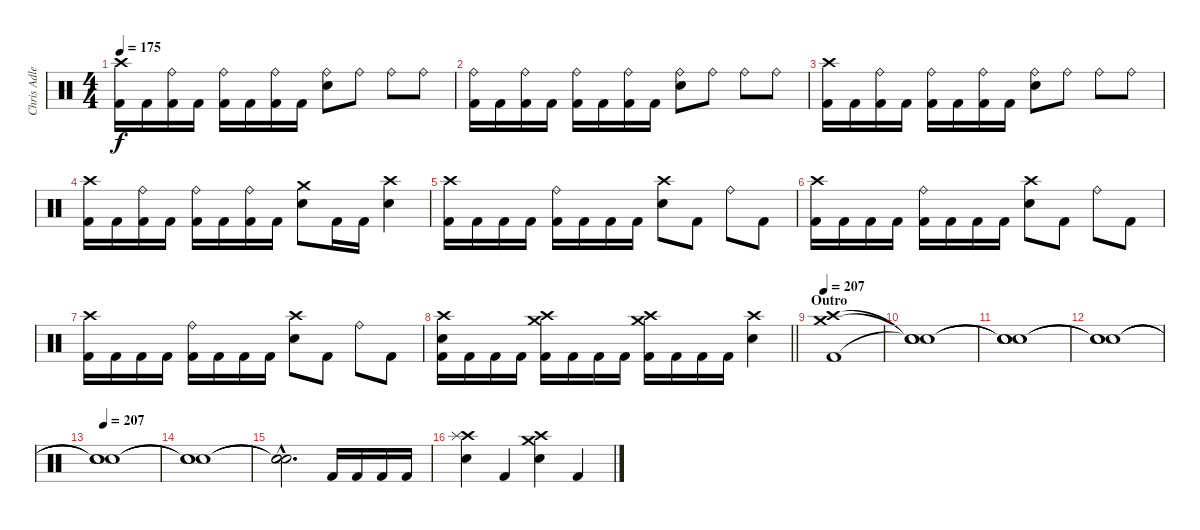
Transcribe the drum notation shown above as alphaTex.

\track ("Chris Adler" "Chris Adle") {instrument percussion}
\staff {score}
\articulation defaults
\ts (4 4)
\tempo 175
\clef neutral
\ks c
("Crash high (hit)" "Kick (hit) 2").16{dy f} "Kick (hit) 2".16 ("Ride (bell)" "Kick (hit) 2").16 "Kick (hit) 2".16 ("Ride (bell)" "Kick (hit) 2").16 "Kick (hit) 2".16 ("Ride (bell)" "Kick (hit) 2").16 "Kick (hit) 2".16 ("Ride (bell)" "Electric Snare (hit)").8 "Ride (bell)".8 "Ride (bell)".8 "Ride (bell)".8 |
("Ride (bell)" "Kick (hit) 2").16 "Kick (hit) 2".16 ("Ride (bell)" "Kick (hit) 2").16 "Kick (hit) 2".16 ("Ride (bell)" "Kick (hit) 2").16 "Kick (hit) 2".16 ("Ride (bell)" "Kick (hit) 2").16 "Kick (hit) 2".16 ("Ride (bell)" "Electric Snare (hit)").8 "Ride (bell)".8 "Ride (bell)".8 "Ride (bell)".8 |
("Crash high (hit)" "Kick (hit) 2").16 "Kick (hit) 2".16 ("Ride (bell)" "Kick (hit) 2").16 "Kick (hit) 2".16 ("Ride (bell)" "Kick (hit) 2").16 "Kick (hit) 2".16 ("Ride (bell)" "Kick (hit) 2").16 "Kick (hit) 2".16 ("Ride (bell)" "Electric Snare (hit)").8 "Ride (bell)".8 "Ride (bell)".8 "Ride (bell)".8 |
("Crash high (hit)" "Kick (hit) 2").16 "Kick (hit) 2".16 ("Ride (bell)" "Kick (hit) 2").16 "Kick (hit) 2".16 ("Ride (bell)" "Kick (hit) 2").16 "Kick (hit) 2".16 ("Ride (bell)" "Kick (hit) 2").16 "Kick (hit) 2".16 ("Crash medium (hit)" "Electric Snare (hit)").8 "Kick (hit) 2".16 "Kick (hit) 2".16 ("Crash high (hit)" "Electric Snare (hit)").4 |
("Crash high (hit)" "Kick (hit) 2").16 "Kick (hit) 2".16 "Kick (hit) 2".16 "Kick (hit) 2".16 ("Ride (bell)" "Kick (hit) 2").16 "Kick (hit) 2".16 "Kick (hit) 2".16 "Kick (hit) 2".16 ("Crash high (hit)" "Electric Snare (hit)").8 "Kick (hit) 2".8 "Ride (bell)".8 "Kick (hit) 2".8 |
("Crash high (hit)" "Kick (hit) 2").16 "Kick (hit) 2".16 "Kick (hit) 2".16 "Kick (hit) 2".16 ("Ride (bell)" "Kick (hit) 2").16 "Kick (hit) 2".16 "Kick (hit) 2".16 "Kick (hit) 2".16 ("Crash high (hit)" "Electric Snare (hit)").8 "Kick (hit) 2".8 "Ride (bell)".8 "Kick (hit) 2".8 |
("Crash high (hit)" "Kick (hit) 2").16 "Kick (hit) 2".16 "Kick (hit) 2".16 "Kick (hit) 2".16 ("Ride (bell)" "Kick (hit) 2").16 "Kick (hit) 2".16 "Kick (hit) 2".16 "Kick (hit) 2".16 ("Crash high (hit)" "Electric Snare (hit)").8 "Kick (hit) 2".8 "Ride (bell)".8 "Kick (hit) 2".8 |
\barLineRight lightlight
("Crash high (hit)" "Electric Snare (hit)" "Kick (hit) 2").16 "Kick (hit) 2".16 "Kick (hit) 2".16 "Kick (hit) 2".16 ("Crash high (hit)" "Crash medium (hit)" "Kick (hit) 2").16 "Kick (hit) 2".16 "Kick (hit) 2".16 "Kick (hit) 2".16 ("Crash high (hit)" "Crash medium (hit)" "Kick (hit) 2").16 "Kick (hit) 2".16 "Kick (hit) 2".16 "Kick (hit) 2".16 ("Crash high (hit)" "Electric Snare (hit)").4 |
\section ("" "Outro")
\tempo 207
("Crash high (hit)" "Crash medium (hit)" "Kick (hit) 2").1 |
("Snare (hit)"{t} "Snare (hit)"{t} "Snare (hit)"{t}).1 |
("Snare (hit)"{t} "Snare (hit)"{t} "Snare (hit)"{t}).1 |
("Snare (hit)"{t} "Snare (hit)"{t} "Snare (hit)"{t}).1 |
\tempo 207
("Snare (hit)"{t} "Snare (hit)"{t} "Snare (hit)"{t}).1 |
("Snare (hit)"{t} "Snare (hit)"{t} "Snare (hit)"{t}).1 |
("Snare (hit)"{hac t} "Snare (hit)"{hac t} "Snare (hit)"{hac t}).2{d} "Kick (hit) 2".16 "Kick (hit) 2".16 "Kick (hit) 2".16 "Kick (hit) 2".16 |
("Crash high (hit)" "Splash (hit)" "Electric Snare (hit)").4 "Kick (hit) 2".4 ("Crash high (hit)" "Crash medium (hit)" "Electric Snare (hit)").4 "Kick (hit) 2".4
